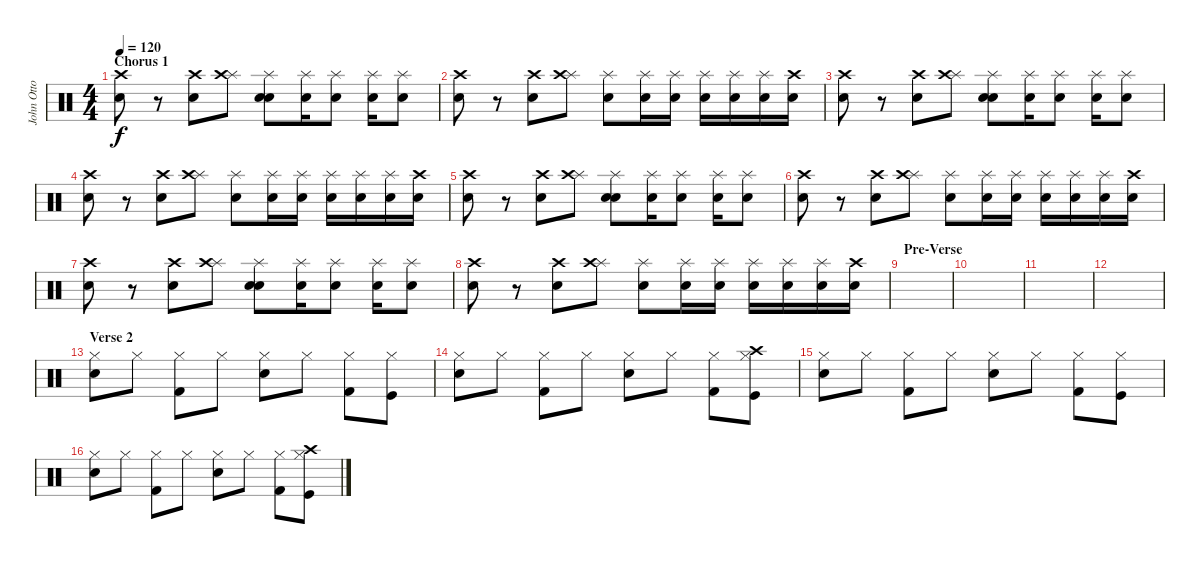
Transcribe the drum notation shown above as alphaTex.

\track ("John Otto (Drums)" "John Otto ") {instrument percussion}
\staff {score}
\articulation defaults
\ts (4 4)
\section ("" "Chorus 1")
\tempo 120
\clef neutral
\ks c
("Snare (hit) 2" "Crash high (hit)").8{dy f} r.8 ("Snare (hit) 2" "Crash high (hit)").8 ("Splash (hit)" "Crash high (hit)").8 ("Splash (hit)" "Electric Snare (hit)" "Snare (hit)").8 ("Splash (hit)" "Snare (hit) 2").16 ("Splash (hit)" "Snare (hit) 2").8 ("Splash (hit)" "Electric Snare (hit)").16 ("Splash (hit)" "Electric Snare (hit)").8 |
("Snare (hit) 2" "Crash high (hit)").8 r.8 ("Snare (hit) 2" "Crash high (hit)").8 ("Splash (hit)" "Crash high (hit)").8 ("Splash (hit)" "Electric Snare (hit)").8 ("Splash (hit)" "Snare (hit) 2").16 ("Splash (hit)" "Snare (hit) 2").16 ("Splash (hit)" "Electric Snare (hit)").16 ("Splash (hit)" "Electric Snare (hit)").16 ("Splash (hit)" "Snare (hit) 2").16 ("Electric Snare (hit)" "Crash high (hit)").16 |
("Snare (hit) 2" "Crash high (hit)").8 r.8 ("Snare (hit) 2" "Crash high (hit)").8 ("Splash (hit)" "Crash high (hit)").8 ("Splash (hit)" "Electric Snare (hit)" "Snare (hit)").8 ("Splash (hit)" "Snare (hit) 2").16 ("Splash (hit)" "Snare (hit) 2").8 ("Splash (hit)" "Electric Snare (hit)").16 ("Splash (hit)" "Electric Snare (hit)").8 |
("Snare (hit) 2" "Crash high (hit)").8 r.8 ("Snare (hit) 2" "Crash high (hit)").8 ("Splash (hit)" "Crash high (hit)").8 ("Splash (hit)" "Electric Snare (hit)").8 ("Splash (hit)" "Snare (hit) 2").16 ("Splash (hit)" "Snare (hit) 2").16 ("Splash (hit)" "Electric Snare (hit)").16 ("Splash (hit)" "Electric Snare (hit)").16 ("Splash (hit)" "Snare (hit) 2").16 ("Electric Snare (hit)" "Crash high (hit)").16 |
("Snare (hit) 2" "Crash high (hit)").8 r.8 ("Snare (hit) 2" "Crash high (hit)").8 ("Splash (hit)" "Crash high (hit)").8 ("Splash (hit)" "Electric Snare (hit)" "Snare (hit)").8 ("Splash (hit)" "Snare (hit) 2").16 ("Splash (hit)" "Snare (hit) 2").8 ("Splash (hit)" "Electric Snare (hit)").16 ("Splash (hit)" "Electric Snare (hit)").8 |
("Snare (hit) 2" "Crash high (hit)").8 r.8 ("Snare (hit) 2" "Crash high (hit)").8 ("Splash (hit)" "Crash high (hit)").8 ("Splash (hit)" "Electric Snare (hit)").8 ("Splash (hit)" "Snare (hit) 2").16 ("Splash (hit)" "Snare (hit) 2").16 ("Splash (hit)" "Electric Snare (hit)").16 ("Splash (hit)" "Electric Snare (hit)").16 ("Splash (hit)" "Snare (hit) 2").16 ("Electric Snare (hit)" "Crash high (hit)").16 |
("Snare (hit) 2" "Crash high (hit)").8 r.8 ("Snare (hit) 2" "Crash high (hit)").8 ("Splash (hit)" "Crash high (hit)").8 ("Splash (hit)" "Electric Snare (hit)" "Snare (hit)").8 ("Splash (hit)" "Snare (hit) 2").16 ("Splash (hit)" "Snare (hit) 2").8 ("Splash (hit)" "Electric Snare (hit)").16 ("Splash (hit)" "Electric Snare (hit)").8 |
("Snare (hit) 2" "Crash high (hit)").8 r.8 ("Snare (hit) 2" "Crash high (hit)").8 ("Splash (hit)" "Crash high (hit)").8 ("Splash (hit)" "Electric Snare (hit)").8 ("Splash (hit)" "Snare (hit) 2").16 ("Splash (hit)" "Snare (hit) 2").16 ("Splash (hit)" "Electric Snare (hit)").16 ("Splash (hit)" "Electric Snare (hit)").16 ("Splash (hit)" "Snare (hit) 2").16 ("Electric Snare (hit)" "Crash high (hit)").16 |
\section ("" "Pre-Verse")
|
|
|
|
\section ("" "Verse 2")
("Hi-Hat (closed)" "Electric Snare (hit)").8 "Hi-Hat (closed)".8 ("Hi-Hat (closed)" "Kick (hit) 2").8 "Hi-Hat (closed)".8 ("Hi-Hat (closed)" "Electric Snare (hit)").8 "Hi-Hat (closed)".8 ("Hi-Hat (closed)" "Kick (hit) 2").8 ("Hi-Hat (closed)" "Kick (hit)").8 |
("Hi-Hat (closed)" "Electric Snare (hit)").8 "Hi-Hat (closed)".8 ("Hi-Hat (closed)" "Kick (hit) 2").8 "Hi-Hat (closed)".8 ("Hi-Hat (closed)" "Electric Snare (hit)").8 "Hi-Hat (closed)".8 ("Hi-Hat (closed)" "Kick (hit) 2").8 ("Hi-Hat (closed)" "Crash high (hit)" "Kick (hit)").8 |
("Hi-Hat (closed)" "Electric Snare (hit)").8 "Hi-Hat (closed)".8 ("Hi-Hat (closed)" "Kick (hit) 2").8 "Hi-Hat (closed)".8 ("Hi-Hat (closed)" "Electric Snare (hit)").8 "Hi-Hat (closed)".8 ("Hi-Hat (closed)" "Kick (hit) 2").8 ("Hi-Hat (closed)" "Kick (hit)").8 |
("Hi-Hat (closed)" "Electric Snare (hit)").8 "Hi-Hat (closed)".8 ("Hi-Hat (closed)" "Kick (hit) 2").8 "Hi-Hat (closed)".8 ("Hi-Hat (closed)" "Electric Snare (hit)").8 "Hi-Hat (closed)".8 ("Hi-Hat (closed)" "Kick (hit) 2").8 ("Hi-Hat (closed)" "Crash high (hit)" "Kick (hit)").8
